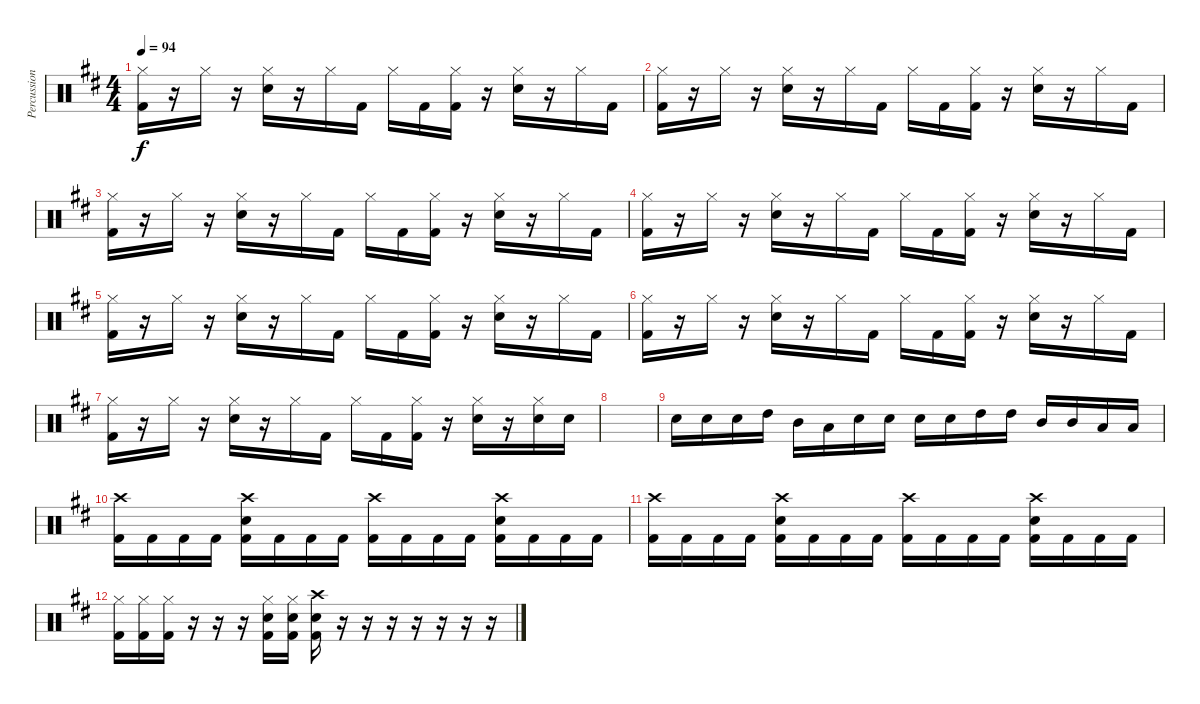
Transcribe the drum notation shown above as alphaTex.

\track ("Percussion" "Percussion") {instrument percussion}
\staff {score}
\articulation defaults
\ts (4 4)
\tempo 94
\clef neutral
\ks d
("Hi-Hat (closed)" "Kick (hit) 2").16{dy f} r.16 "Hi-Hat (closed)".16 r.16 ("Hi-Hat (closed)" "Electric Snare (hit)").16 r.16 "Hi-Hat (closed)".16 "Kick (hit) 2".16 "Hi-Hat (closed)".16 "Kick (hit) 2".16 ("Hi-Hat (closed)" "Kick (hit) 2").16 r.16 ("Hi-Hat (closed)" "Electric Snare (hit)").16 r.16 "Hi-Hat (closed)".16 "Kick (hit) 2".16 |
("Hi-Hat (closed)" "Kick (hit) 2").16 r.16 "Hi-Hat (closed)".16 r.16 ("Hi-Hat (closed)" "Electric Snare (hit)").16 r.16 "Hi-Hat (closed)".16 "Kick (hit) 2".16 "Hi-Hat (closed)".16 "Kick (hit) 2".16 ("Hi-Hat (closed)" "Kick (hit) 2").16 r.16 ("Hi-Hat (closed)" "Electric Snare (hit)").16 r.16 "Hi-Hat (closed)".16 "Kick (hit) 2".16 |
("Hi-Hat (closed)" "Kick (hit) 2").16 r.16 "Hi-Hat (closed)".16 r.16 ("Hi-Hat (closed)" "Electric Snare (hit)").16 r.16 "Hi-Hat (closed)".16 "Kick (hit) 2".16 "Hi-Hat (closed)".16 "Kick (hit) 2".16 ("Hi-Hat (closed)" "Kick (hit) 2").16 r.16 ("Hi-Hat (closed)" "Electric Snare (hit)").16 r.16 "Hi-Hat (closed)".16 "Kick (hit) 2".16 |
("Hi-Hat (closed)" "Kick (hit) 2").16 r.16 "Hi-Hat (closed)".16 r.16 ("Hi-Hat (closed)" "Electric Snare (hit)").16 r.16 "Hi-Hat (closed)".16 "Kick (hit) 2".16 "Hi-Hat (closed)".16 "Kick (hit) 2".16 ("Hi-Hat (closed)" "Kick (hit) 2").16 r.16 ("Hi-Hat (closed)" "Electric Snare (hit)").16 r.16 "Hi-Hat (closed)".16 "Kick (hit) 2".16 |
("Hi-Hat (closed)" "Kick (hit) 2").16 r.16 "Hi-Hat (closed)".16 r.16 ("Hi-Hat (closed)" "Electric Snare (hit)").16 r.16 "Hi-Hat (closed)".16 "Kick (hit) 2".16 "Hi-Hat (closed)".16 "Kick (hit) 2".16 ("Hi-Hat (closed)" "Kick (hit) 2").16 r.16 ("Hi-Hat (closed)" "Electric Snare (hit)").16 r.16 "Hi-Hat (closed)".16 "Kick (hit) 2".16 |
("Hi-Hat (closed)" "Kick (hit) 2").16 r.16 "Hi-Hat (closed)".16 r.16 ("Hi-Hat (closed)" "Electric Snare (hit)").16 r.16 "Hi-Hat (closed)".16 "Kick (hit) 2".16 "Hi-Hat (closed)".16 "Kick (hit) 2".16 ("Hi-Hat (closed)" "Kick (hit) 2").16 r.16 ("Hi-Hat (closed)" "Electric Snare (hit)").16 r.16 "Hi-Hat (closed)".16 "Kick (hit) 2".16 |
("Hi-Hat (closed)" "Kick (hit) 2").16 r.16 "Hi-Hat (closed)".16 r.16 ("Hi-Hat (closed)" "Electric Snare (hit)").16 r.16 "Hi-Hat (closed)".16 "Kick (hit) 2".16 "Hi-Hat (closed)".16 "Kick (hit) 2".16 ("Hi-Hat (closed)" "Kick (hit) 2").16 r.16 ("Hi-Hat (closed)" "Electric Snare (hit)").16 r.16 ("Hi-Hat (closed)" "Electric Snare (hit)").16 "Electric Snare (hit)".16 |
|
"Electric Snare (hit)".16 "Electric Snare (hit)".16 "Electric Snare (hit)".16 "High Tom (hit)".16 "Mid Tom (hit)".16 "Low Tom (hit)".16 "Electric Snare (hit)".16 "Electric Snare (hit)".16 "Electric Snare (hit)".16 "Electric Snare (hit)".16 "High Tom (hit)".16 "High Tom (hit)".16 "Mid Tom (hit)".16 "Mid Tom (hit)".16 "Low Tom (hit)".16 "Low Floor Tom (hit)".16 |
("Crash high (hit)" "Kick (hit) 2").16 "Kick (hit) 2".16 "Kick (hit) 2".16 "Kick (hit) 2".16 ("Crash high (hit)" "Electric Snare (hit)" "Kick (hit) 2").16 "Kick (hit) 2".16 "Kick (hit) 2".16 "Kick (hit) 2".16 ("Crash high (hit)" "Kick (hit) 2").16 "Kick (hit) 2".16 "Kick (hit) 2".16 "Kick (hit) 2".16 ("Crash high (hit)" "Electric Snare (hit)" "Kick (hit) 2").16 "Kick (hit) 2".16 "Kick (hit) 2".16 "Kick (hit) 2".16 |
("Crash high (hit)" "Kick (hit) 2").16 "Kick (hit) 2".16 "Kick (hit) 2".16 "Kick (hit) 2".16 ("Crash high (hit)" "Electric Snare (hit)" "Kick (hit) 2").16 "Kick (hit) 2".16 "Kick (hit) 2".16 "Kick (hit) 2".16 ("Crash high (hit)" "Kick (hit) 2").16 "Kick (hit) 2".16 "Kick (hit) 2".16 "Kick (hit) 2".16 ("Crash high (hit)" "Electric Snare (hit)" "Kick (hit) 2").16 "Kick (hit) 2".16 "Kick (hit) 2".16 "Kick (hit) 2".16 |
("Hi-Hat (closed)" "Kick (hit) 2").16 ("Hi-Hat (closed)" "Kick (hit) 2").16 ("Hi-Hat (closed)" "Kick (hit) 2").16 r.16 r.16 r.16 ("Hi-Hat (closed)" "Electric Snare (hit)" "Kick (hit) 2").16 ("Hi-Hat (closed)" "Electric Snare (hit)" "Kick (hit) 2").16 ("Crash high (hit)" "Electric Snare (hit)" "Kick (hit) 2").16 r.16 r.16 r.16 r.16 r.16 r.16 r.16
